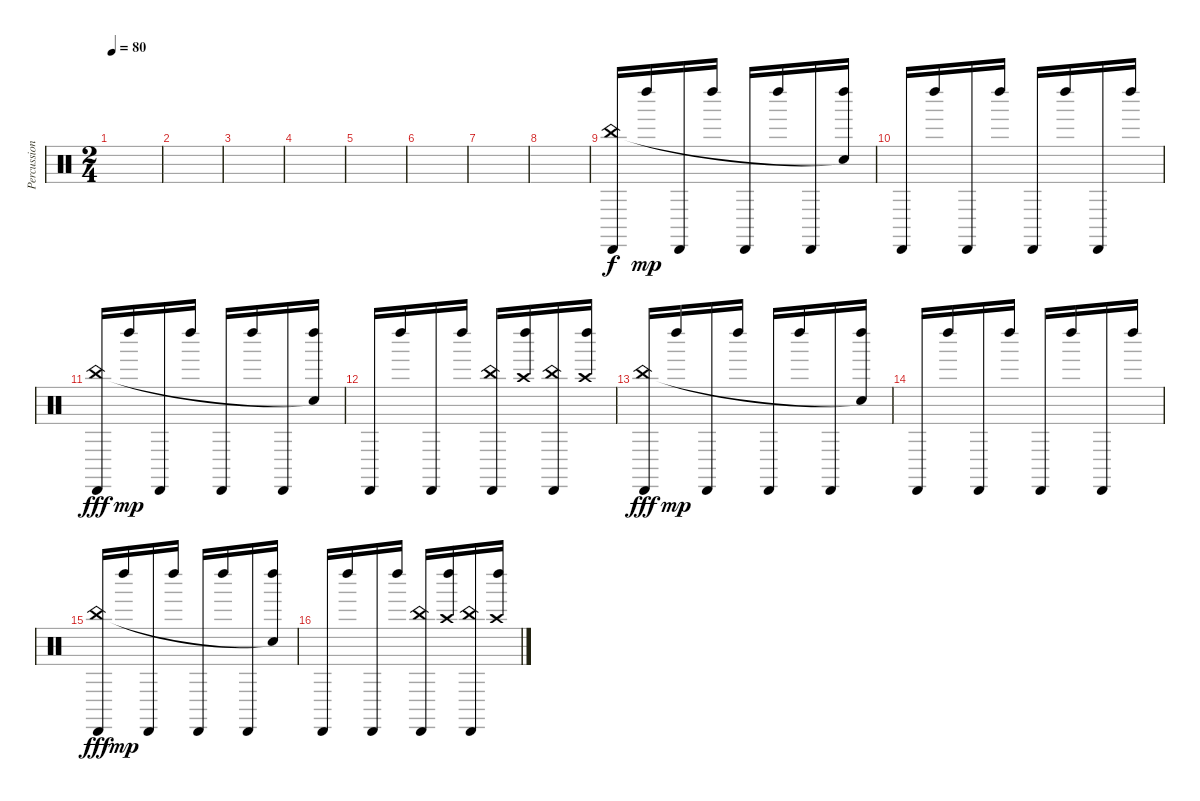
\track ("Percussions" "Percussion") {instrument percussion}
\staff {score}
\articulation defaults
\ts (2 4)
\tempo 80
\clef neutral
\ks c
|
|
|
|
|
|
|
|
("Cabasa (hit)" "China (hit)").16 "Left Maraca (hit)".16{dy mp} "Cabasa (hit)".16 "Left Maraca (hit)".16 "Cabasa (hit)".16 "Left Maraca (hit)".16 "Cabasa (hit)".16 ("Left Maraca (hit)" "Snare (hit)"{t}).16 |
"Cabasa (hit)".16 "Left Maraca (hit)".16 "Cabasa (hit)".16 "Left Maraca (hit)".16 "Cabasa (hit)".16 "Left Maraca (hit)".16 "Cabasa (hit)".16 "Left Maraca (hit)".16 |
("Cabasa (hit)" "China (hit)").16{dy fff} "Left Maraca (hit)".16{dy mp} "Cabasa (hit)".16 "Left Maraca (hit)".16 "Cabasa (hit)".16 "Left Maraca (hit)".16 "Cabasa (hit)".16 ("Left Maraca (hit)" "Snare (hit)"{t}).16 |
"Cabasa (hit)".16 "Left Maraca (hit)".16 "Cabasa (hit)".16 "Left Maraca (hit)".16 ("Cabasa (hit)" "China (hit)").16 ("Left Maraca (hit)" "Crash high (hit)").16 ("Cabasa (hit)" "China (hit)").16 ("Left Maraca (hit)" "Crash high (hit)").16 |
("Cabasa (hit)" "China (hit)").16{dy fff} "Left Maraca (hit)".16{dy mp} "Cabasa (hit)".16 "Left Maraca (hit)".16 "Cabasa (hit)".16 "Left Maraca (hit)".16 "Cabasa (hit)".16 ("Left Maraca (hit)" "Snare (hit)"{t}).16 |
"Cabasa (hit)".16 "Left Maraca (hit)".16 "Cabasa (hit)".16 "Left Maraca (hit)".16 "Cabasa (hit)".16 "Left Maraca (hit)".16 "Cabasa (hit)".16 "Left Maraca (hit)".16 |
("Cabasa (hit)" "China (hit)").16{dy fff} "Left Maraca (hit)".16{dy mp} "Cabasa (hit)".16 "Left Maraca (hit)".16 "Cabasa (hit)".16 "Left Maraca (hit)".16 "Cabasa (hit)".16 ("Left Maraca (hit)" "Snare (hit)"{t}).16 |
"Cabasa (hit)".16 "Left Maraca (hit)".16 "Cabasa (hit)".16 "Left Maraca (hit)".16 ("Cabasa (hit)" "China (hit)").16 ("Left Maraca (hit)" "Crash high (hit)").16 ("Cabasa (hit)" "China (hit)").16 ("Left Maraca (hit)" "Crash high (hit)").16
